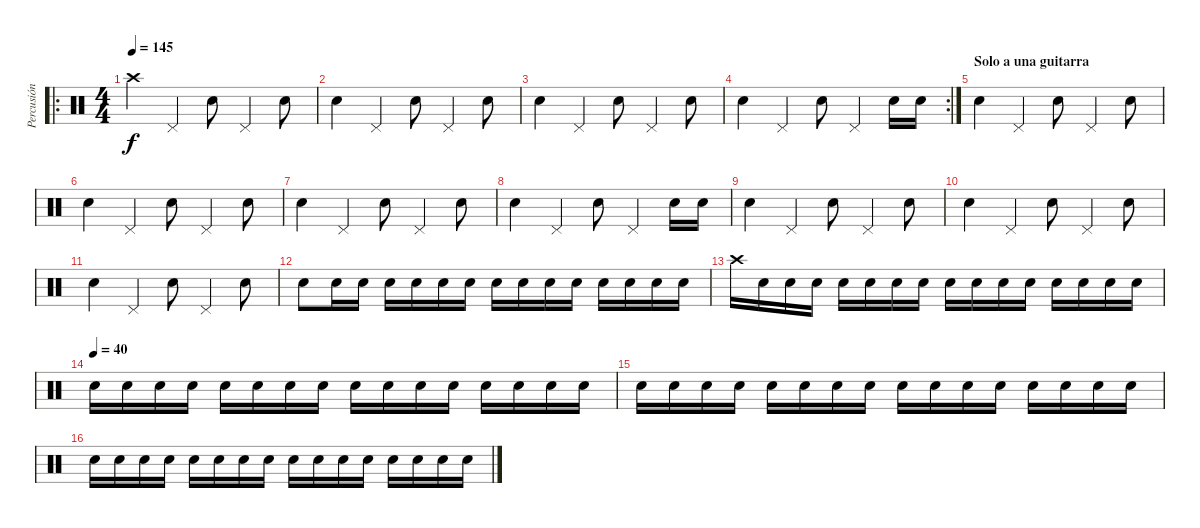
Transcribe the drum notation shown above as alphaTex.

\track ("Percusión" "Percusión") {instrument percussion}
\staff {score}
\articulation defaults
\ro
\ts (4 4)
\tempo 145
\clef neutral
\ks c "Crash high (hit)".4{dy f} "Pedal Hi-Hat (hit)".4 "Electric Snare (hit)".8 "Pedal Hi-Hat (hit)".4 "Electric Snare (hit)".8
|
"Electric Snare (hit)".4 "Pedal Hi-Hat (hit)".4 "Electric Snare (hit)".8 "Pedal Hi-Hat (hit)".4 "Electric Snare (hit)".8 |
"Electric Snare (hit)".4 "Pedal Hi-Hat (hit)".4 "Electric Snare (hit)".8 "Pedal Hi-Hat (hit)".4 "Electric Snare (hit)".8 |
\rc 2 "Electric Snare (hit)".4 "Pedal Hi-Hat (hit)".4 "Electric Snare (hit)".8 "Pedal Hi-Hat (hit)".4 "Electric Snare (hit)".16 "Electric Snare (hit)".16
|
\section ("" "Solo a una guitarra")
"Electric Snare (hit)".4 "Pedal Hi-Hat (hit)".4 "Electric Snare (hit)".8 "Pedal Hi-Hat (hit)".4 "Electric Snare (hit)".8 |
"Electric Snare (hit)".4 "Pedal Hi-Hat (hit)".4 "Electric Snare (hit)".8 "Pedal Hi-Hat (hit)".4 "Electric Snare (hit)".8 |
"Electric Snare (hit)".4 "Pedal Hi-Hat (hit)".4 "Electric Snare (hit)".8 "Pedal Hi-Hat (hit)".4 "Electric Snare (hit)".8 |
"Electric Snare (hit)".4 "Pedal Hi-Hat (hit)".4 "Electric Snare (hit)".8 "Pedal Hi-Hat (hit)".4 "Electric Snare (hit)".16 "Electric Snare (hit)".16 |
"Electric Snare (hit)".4 "Pedal Hi-Hat (hit)".4 "Electric Snare (hit)".8 "Pedal Hi-Hat (hit)".4 "Electric Snare (hit)".8 |
"Electric Snare (hit)".4 "Pedal Hi-Hat (hit)".4 "Electric Snare (hit)".8 "Pedal Hi-Hat (hit)".4 "Electric Snare (hit)".8 |
"Electric Snare (hit)".4 "Pedal Hi-Hat (hit)".4 "Electric Snare (hit)".8 "Pedal Hi-Hat (hit)".4 "Electric Snare (hit)".8 |
"Electric Snare (hit)".8 "Electric Snare (hit)".16 "Electric Snare (hit)".16 "Electric Snare (hit)".16 "Electric Snare (hit)".16 "Electric Snare (hit)".16 "Electric Snare (hit)".16 "Electric Snare (hit)".16 "Electric Snare (hit)".16 "Electric Snare (hit)".16 "Electric Snare (hit)".16 "Electric Snare (hit)".16 "Electric Snare (hit)".16 "Electric Snare (hit)".16 "Electric Snare (hit)".16 |
"Crash high (hit)".16 "Electric Snare (hit)".16 "Electric Snare (hit)".16 "Electric Snare (hit)".16 "Electric Snare (hit)".16 "Electric Snare (hit)".16 "Electric Snare (hit)".16 "Electric Snare (hit)".16 "Electric Snare (hit)".16 "Electric Snare (hit)".16 "Electric Snare (hit)".16 "Electric Snare (hit)".16 "Electric Snare (hit)".16 "Electric Snare (hit)".16 "Electric Snare (hit)".16 "Electric Snare (hit)".16 |
\tempo (40)
"Electric Snare (hit)".16 "Electric Snare (hit)".16 "Electric Snare (hit)".16 "Electric Snare (hit)".16 "Electric Snare (hit)".16 "Electric Snare (hit)".16 "Electric Snare (hit)".16 "Electric Snare (hit)".16 "Electric Snare (hit)".16 "Electric Snare (hit)".16 "Electric Snare (hit)".16 "Electric Snare (hit)".16 "Electric Snare (hit)".16 "Electric Snare (hit)".16 "Electric Snare (hit)".16 "Electric Snare (hit)".16 |
"Electric Snare (hit)".16 "Electric Snare (hit)".16 "Electric Snare (hit)".16 "Electric Snare (hit)".16 "Electric Snare (hit)".16 "Electric Snare (hit)".16 "Electric Snare (hit)".16 "Electric Snare (hit)".16 "Electric Snare (hit)".16 "Electric Snare (hit)".16 "Electric Snare (hit)".16 "Electric Snare (hit)".16 "Electric Snare (hit)".16 "Electric Snare (hit)".16 "Electric Snare (hit)".16 "Electric Snare (hit)".16 |
"Electric Snare (hit)".16 "Electric Snare (hit)".16 "Electric Snare (hit)".16 "Electric Snare (hit)".16 "Electric Snare (hit)".16 "Electric Snare (hit)".16 "Electric Snare (hit)".16 "Electric Snare (hit)".16 "Electric Snare (hit)".16 "Electric Snare (hit)".16 "Electric Snare (hit)".16 "Electric Snare (hit)".16 "Electric Snare (hit)".16 "Electric Snare (hit)".16 "Electric Snare (hit)".16 "Electric Snare (hit)".16
